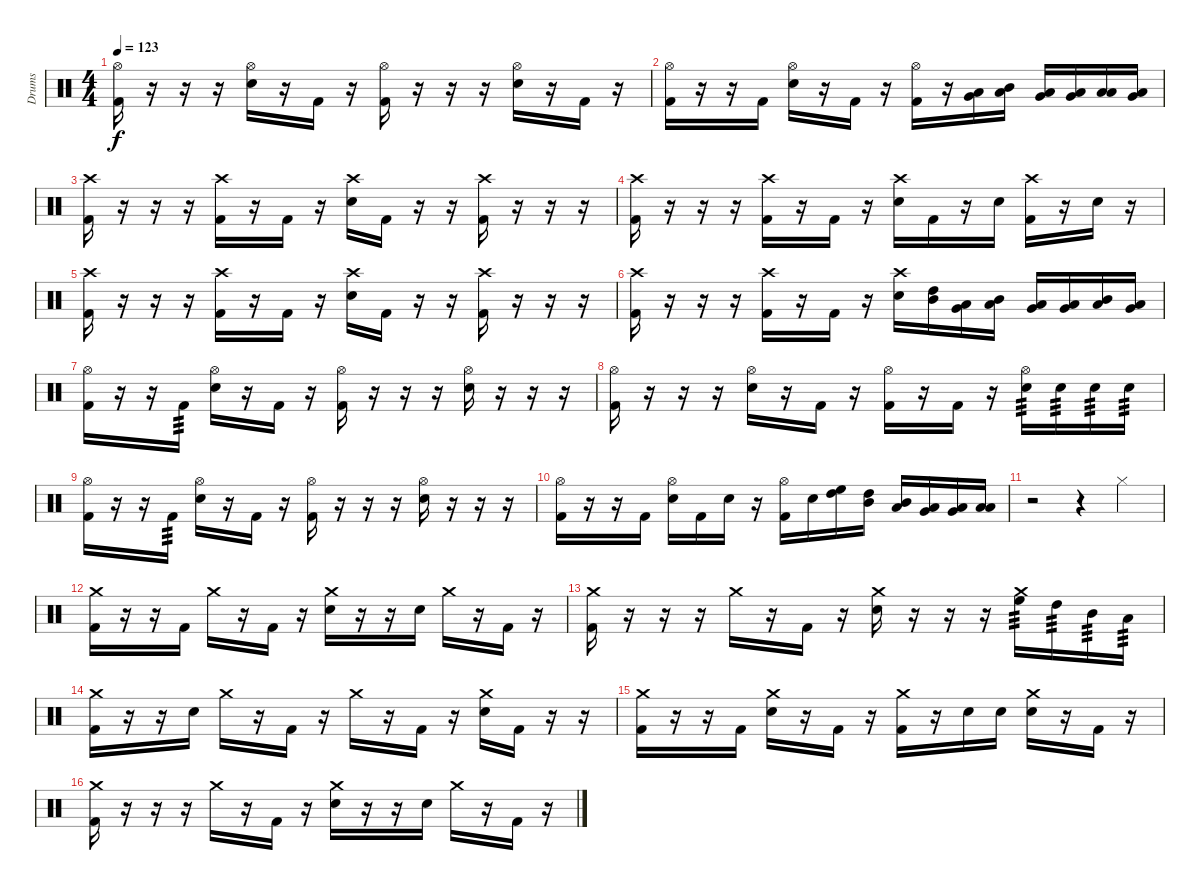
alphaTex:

\track ("Drums" "Drums") {instrument percussion}
\staff {score}
\articulation defaults
\ts (4 4)
\tempo 123
\clef neutral
\ks c
("Hi-Hat (open)" "Kick (hit) 2").16{dy f} r.16 r.16 r.16 ("Hi-Hat (open)" "Electric Snare (hit)").16 r.16 "Kick (hit) 2".16 r.16 ("Hi-Hat (open)" "Kick (hit) 2").16 r.16 r.16 r.16 ("Hi-Hat (open)" "Electric Snare (hit)").16 r.16 "Kick (hit) 2".16 r.16 |
("Hi-Hat (open)" "Kick (hit) 2").16 r.16 r.16 "Kick (hit) 2".16 ("Hi-Hat (open)" "Electric Snare (hit)").16 r.16 "Kick (hit) 2".16 r.16 ("Hi-Hat (open)" "Kick (hit) 2").16 r.16 ("Low Tom (hit)" "Very Low Tom (hit)").16 ("Mid Tom (hit)" "Low Tom (hit)").16 ("Very Low Tom (hit)" "Low Floor Tom (hit)").16 ("Low Tom (hit)" "Very Low Tom (hit)").16 ("Low Floor Tom (hit)" "Low Tom (hit)").16 ("Very Low Tom (hit)" "Low Floor Tom (hit)").16 |
("Crash high (hit)" "Kick (hit) 2").16 r.16 r.16 r.16 ("Crash high (hit)" "Kick (hit) 2").16 r.16 "Kick (hit) 2".16 r.16 ("Crash high (hit)" "Electric Snare (hit)").16 "Kick (hit) 2".16 r.16 r.16 ("Crash high (hit)" "Kick (hit) 2").16 r.16 r.16 r.16 |
("Crash high (hit)" "Kick (hit) 2").16 r.16 r.16 r.16 ("Crash high (hit)" "Kick (hit) 2").16 r.16 "Kick (hit) 2".16 r.16 ("Crash high (hit)" "Electric Snare (hit)").16 "Kick (hit) 2".16 r.16 "Electric Snare (hit)".16 ("Crash high (hit)" "Kick (hit) 2").16 r.16 "Electric Snare (hit)".16 r.16 |
("Crash high (hit)" "Kick (hit) 2").16 r.16 r.16 r.16 ("Crash high (hit)" "Kick (hit) 2").16 r.16 "Kick (hit) 2".16 r.16 ("Crash high (hit)" "Electric Snare (hit)").16 "Kick (hit) 2".16 r.16 r.16 ("Crash high (hit)" "Kick (hit) 2").16 r.16 r.16 r.16 |
("Crash high (hit)" "Kick (hit) 2").16 r.16 r.16 r.16 ("Crash high (hit)" "Kick (hit) 2").16 r.16 "Kick (hit) 2".16 r.16 ("Crash high (hit)" "Snare (hit) 2").16 ("High Tom (hit)" "Mid Tom (hit)").16 ("Low Tom (hit)" "Very Low Tom (hit)").16 ("Mid Tom (hit)" "Low Tom (hit)").16 ("Very Low Tom (hit)" "Low Floor Tom (hit)").16 ("Low Tom (hit)" "Very Low Tom (hit)").16 ("Low Floor Tom (hit)" "Mid Tom (hit)").16 ("Low Tom (hit)" "Very Low Tom (hit)").16 |
("Hi-Hat (open)" "Kick (hit) 2").16 r.16 r.16 "Kick (hit) 2".16{tp 3} ("Hi-Hat (open)" "Electric Snare (hit)").16 r.16 "Kick (hit) 2".16 r.16 ("Hi-Hat (open)" "Kick (hit) 2").16 r.16 r.16 r.16 ("Hi-Hat (open)" "Electric Snare (hit)").16 r.16 r.16 r.16 |
("Hi-Hat (open)" "Kick (hit) 2").16 r.16 r.16 r.16 ("Hi-Hat (open)" "Electric Snare (hit)").16 r.16 "Kick (hit) 2".16 r.16 ("Hi-Hat (open)" "Kick (hit) 2").16 r.16 "Kick (hit) 2".16 r.16 ("Hi-Hat (open)" "Electric Snare (hit)").16{tp 3} "Electric Snare (hit)".16{tp 3} "Electric Snare (hit)".16{tp 3} "Electric Snare (hit)".16{tp 3} |
("Hi-Hat (open)" "Kick (hit) 2").16 r.16 r.16 "Kick (hit) 2".16{tp 3} ("Hi-Hat (open)" "Electric Snare (hit)").16 r.16 "Kick (hit) 2".16 r.16 ("Hi-Hat (open)" "Kick (hit) 2").16 r.16 r.16 r.16 ("Hi-Hat (open)" "Electric Snare (hit)").16 r.16 r.16 r.16 |
("Hi-Hat (open)" "Kick (hit) 2").16 r.16 r.16 "Kick (hit) 2".16 ("Hi-Hat (open)" "Electric Snare (hit)").16 "Kick (hit) 2".16 "Electric Snare (hit)".16 r.16 ("Hi-Hat (open)" "Kick (hit) 2").16 "Electric Snare (hit)".16 ("High Floor Tom (hit)" "High Tom (hit)").16 ("High Tom (hit)" "Mid Tom (hit)").16 ("Mid Tom (hit)" "Low Tom (hit)").16 ("Low Tom (hit)" "Very Low Tom (hit)").16 ("Very Low Tom (hit)" "Low Floor Tom (hit)").16 ("Low Floor Tom (hit)" "Low Tom (hit)").16 |
r.2 r.4 "Hi-Hat (closed)".4 |
("Crash medium (hit)" "Kick (hit) 2").16 r.16 r.16 "Kick (hit) 2".16 "Crash medium (hit)".16 r.16 "Kick (hit) 2".16 r.16 ("Crash medium (hit)" "Electric Snare (hit)").16 r.16 r.16 "Electric Snare (hit)".16 "Crash medium (hit)".16 r.16 "Kick (hit) 2".16 r.16 |
("Crash medium (hit)" "Kick (hit) 2").16 r.16 r.16 r.16 "Crash medium (hit)".16 r.16 "Kick (hit) 2".16 r.16 ("Crash medium (hit)" "Electric Snare (hit)").16 r.16 r.16 r.16 ("Crash medium (hit)" "High Floor Tom (hit)").16{tp 3} "High Tom (hit)".16{tp 3} "Mid Tom (hit)".16{tp 3} "Low Tom (hit)".16{tp 3} |
("Crash medium (hit)" "Kick (hit) 2").16 r.16 r.16 "Electric Snare (hit)".16 "Crash medium (hit)".16 r.16 "Kick (hit) 2".16 r.16 "Crash medium (hit)".16 r.16 "Kick (hit) 2".16 r.16 ("Crash medium (hit)" "Electric Snare (hit)").16 "Kick (hit) 2".16 r.16 r.16 |
("Crash medium (hit)" "Kick (hit) 2").16 r.16 r.16 "Kick (hit) 2".16 ("Crash medium (hit)" "Electric Snare (hit)").16 r.16 "Kick (hit) 2".16 r.16 ("Crash medium (hit)" "Kick (hit) 2").16 r.16 "Electric Snare (hit)".16 "Electric Snare (hit)".16 ("Crash medium (hit)" "Electric Snare (hit)").16 r.16 "Kick (hit) 2".16 r.16 |
("Crash medium (hit)" "Kick (hit) 2").16 r.16 r.16 r.16 "Crash medium (hit)".16 r.16 "Kick (hit) 2".16 r.16 ("Crash medium (hit)" "Electric Snare (hit)").16 r.16 r.16 "Electric Snare (hit)".16 "Crash medium (hit)".16 r.16 "Kick (hit) 2".16 r.16
